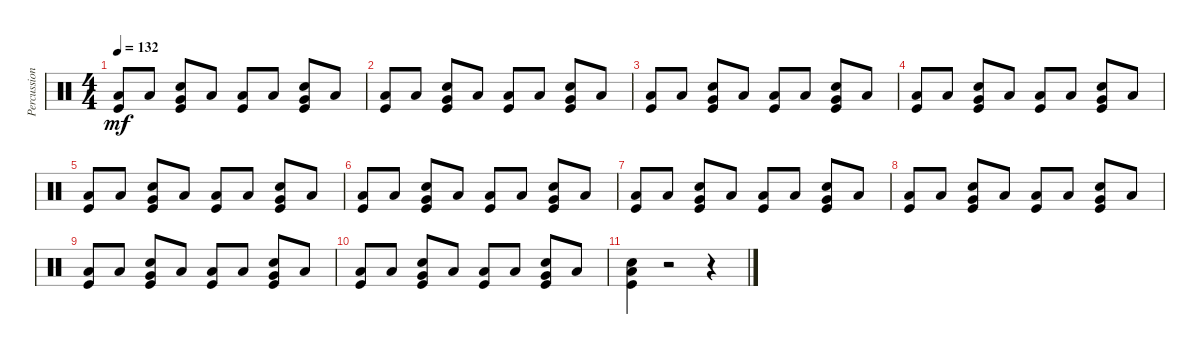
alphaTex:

\track ("Percussions" "Percussion") {instrument percussion}
\staff {score}
\articulation defaults
\ts (4 4)
\tempo 132
\clef neutral
\ks c
("Low Floor Tom (hit)" "Kick (hit)").8{dy mf} "Low Floor Tom (hit)".8 ("Very Low Tom (hit)" "Snare (hit) 2" "Kick (hit)").8 "Low Floor Tom (hit)".8 ("Low Floor Tom (hit)" "Kick (hit)").8 "Low Floor Tom (hit)".8 ("Very Low Tom (hit)" "Snare (hit) 2" "Kick (hit)").8 "Low Floor Tom (hit)".8 |
("Low Floor Tom (hit)" "Kick (hit)").8 "Low Floor Tom (hit)".8 ("Very Low Tom (hit)" "Snare (hit) 2" "Kick (hit)").8 "Low Floor Tom (hit)".8 ("Low Floor Tom (hit)" "Kick (hit)").8 "Low Floor Tom (hit)".8 ("Very Low Tom (hit)" "Snare (hit) 2" "Kick (hit)").8 "Low Floor Tom (hit)".8 |
("Low Floor Tom (hit)" "Kick (hit)").8 "Low Floor Tom (hit)".8 ("Very Low Tom (hit)" "Snare (hit) 2" "Kick (hit)").8 "Low Floor Tom (hit)".8 ("Low Floor Tom (hit)" "Kick (hit)").8 "Low Floor Tom (hit)".8 ("Very Low Tom (hit)" "Snare (hit) 2" "Kick (hit)").8 "Low Floor Tom (hit)".8 |
("Low Floor Tom (hit)" "Kick (hit)").8 "Low Floor Tom (hit)".8 ("Very Low Tom (hit)" "Snare (hit) 2" "Kick (hit)").8 "Low Floor Tom (hit)".8 ("Low Floor Tom (hit)" "Kick (hit)").8 "Low Floor Tom (hit)".8 ("Very Low Tom (hit)" "Snare (hit) 2" "Kick (hit)").8 "Low Floor Tom (hit)".8 |
("Low Floor Tom (hit)" "Kick (hit)").8 "Low Floor Tom (hit)".8 ("Very Low Tom (hit)" "Snare (hit) 2" "Kick (hit)").8 "Low Floor Tom (hit)".8 ("Low Floor Tom (hit)" "Kick (hit)").8 "Low Floor Tom (hit)".8 ("Very Low Tom (hit)" "Snare (hit) 2" "Kick (hit)").8 "Low Floor Tom (hit)".8 |
("Low Floor Tom (hit)" "Kick (hit)").8 "Low Floor Tom (hit)".8 ("Very Low Tom (hit)" "Snare (hit) 2" "Kick (hit)").8 "Low Floor Tom (hit)".8 ("Low Floor Tom (hit)" "Kick (hit)").8 "Low Floor Tom (hit)".8 ("Very Low Tom (hit)" "Snare (hit) 2" "Kick (hit)").8 "Low Floor Tom (hit)".8 |
("Low Floor Tom (hit)" "Kick (hit)").8 "Low Floor Tom (hit)".8 ("Very Low Tom (hit)" "Snare (hit) 2" "Kick (hit)").8 "Low Floor Tom (hit)".8 ("Low Floor Tom (hit)" "Kick (hit)").8 "Low Floor Tom (hit)".8 ("Very Low Tom (hit)" "Snare (hit) 2" "Kick (hit)").8 "Low Floor Tom (hit)".8 |
("Low Floor Tom (hit)" "Kick (hit)").8 "Low Floor Tom (hit)".8 ("Very Low Tom (hit)" "Snare (hit) 2" "Kick (hit)").8 "Low Floor Tom (hit)".8 ("Low Floor Tom (hit)" "Kick (hit)").8 "Low Floor Tom (hit)".8 ("Very Low Tom (hit)" "Snare (hit) 2" "Kick (hit)").8 "Low Floor Tom (hit)".8 |
("Low Floor Tom (hit)" "Kick (hit)").8 "Low Floor Tom (hit)".8 ("Very Low Tom (hit)" "Snare (hit) 2" "Kick (hit)").8 "Low Floor Tom (hit)".8 ("Low Floor Tom (hit)" "Kick (hit)").8 "Low Floor Tom (hit)".8 ("Very Low Tom (hit)" "Snare (hit) 2" "Kick (hit)").8 "Low Floor Tom (hit)".8 |
("Low Floor Tom (hit)" "Kick (hit)").8 "Low Floor Tom (hit)".8 ("Very Low Tom (hit)" "Snare (hit) 2" "Kick (hit)").8 "Low Floor Tom (hit)".8 ("Low Floor Tom (hit)" "Kick (hit)").8 "Low Floor Tom (hit)".8 ("Very Low Tom (hit)" "Snare (hit) 2" "Kick (hit)").8 "Low Floor Tom (hit)".8 |
("Low Floor Tom (hit)" "Snare (hit) 2" "Kick (hit)").4 r.2 r.4
